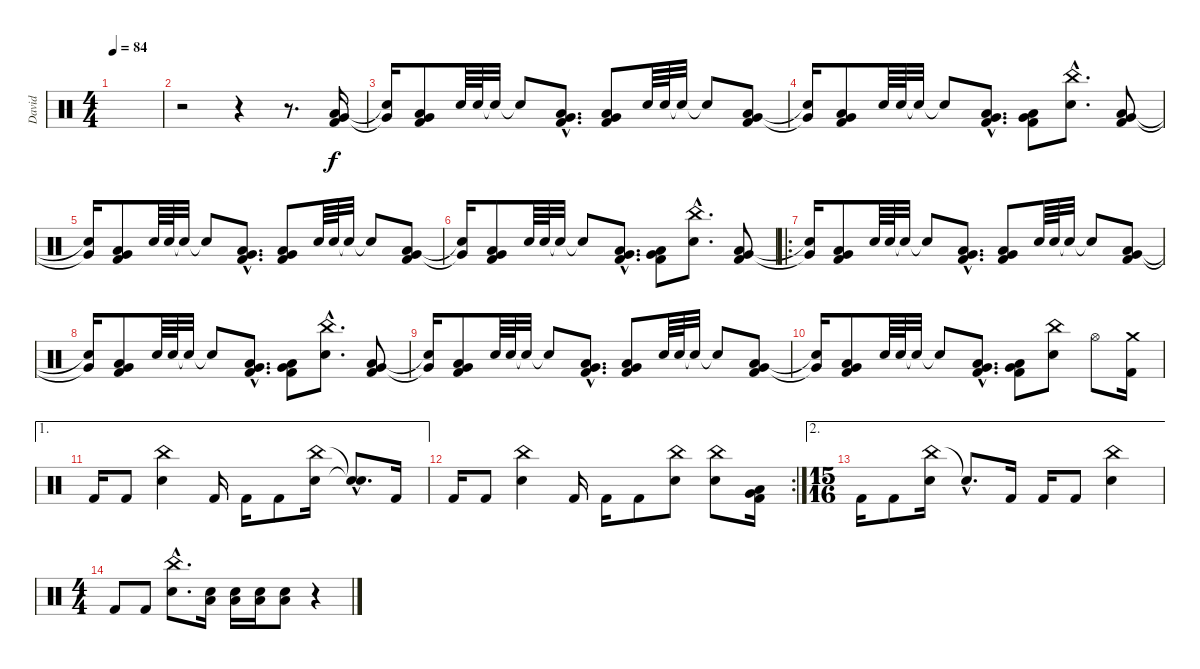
\track ("David" "David") {instrument percussion}
\staff {score}
\articulation defaults
\ts (4 4)
\tempo 84
\clef neutral
\ks c
|
r.2 r.4 r.8{d} ("Low Tom (hit)" "Very Low Tom (hit)" "Kick (hit) 2").16 |
("Snare (hit)"{t} "Very Low Tom (hit)"{t}).16 ("Very Low Tom (hit)" "Low Floor Tom (hit)" "Kick (hit) 2").8 "Snare (hit) 2".64 "Snare (hit) 2".64 "Snare (hit)"{t}.32 "Snare (hit)"{t}.8 ("Low Tom (hit)"{hac} "Very Low Tom (hit)"{hac} "Kick (hit) 2"{hac}).8{d} ("Very Low Tom (hit)" "Low Floor Tom (hit)" "Kick (hit) 2").8 "Snare (hit) 2".64 "Snare (hit) 2".64 "Snare (hit)"{t}.32 "Snare (hit)"{t}.8 ("Low Tom (hit)" "Very Low Tom (hit)" "Kick (hit) 2").8 |
("Snare (hit)"{t} "Very Low Tom (hit)"{t}).16 ("Very Low Tom (hit)" "Low Floor Tom (hit)" "Kick (hit) 2").8 "Snare (hit) 2".64 "Snare (hit) 2".64 "Snare (hit)"{t}.32 "Snare (hit)"{t}.8 ("Low Tom (hit)"{hac} "Very Low Tom (hit)"{hac} "Kick (hit) 2"{hac}).8{d} ("Very Low Tom (hit)" "Low Floor Tom (hit)" "Kick (hit) 2").8 ("China (hit)"{hac} "Snare (hit) 2"{hac}).8{d} ("Low Tom (hit)" "Very Low Tom (hit)" "Kick (hit) 2").8 |
("Snare (hit)"{t} "Very Low Tom (hit)"{t}).16 ("Very Low Tom (hit)" "Low Floor Tom (hit)" "Kick (hit) 2").8 "Snare (hit) 2".64 "Snare (hit) 2".64 "Snare (hit)"{t}.32 "Snare (hit)"{t}.8 ("Low Tom (hit)"{hac} "Very Low Tom (hit)"{hac} "Kick (hit) 2"{hac}).8{d} ("Very Low Tom (hit)" "Low Floor Tom (hit)" "Kick (hit) 2").8 "Snare (hit) 2".64 "Snare (hit) 2".64 "Snare (hit)"{t}.32 "Snare (hit)"{t}.8 ("Low Tom (hit)" "Very Low Tom (hit)" "Kick (hit) 2").8 |
("Snare (hit)"{t} "Very Low Tom (hit)"{t}).16 ("Very Low Tom (hit)" "Low Floor Tom (hit)" "Kick (hit) 2").8 "Snare (hit) 2".64 "Snare (hit) 2".64 "Snare (hit)"{t}.32 "Snare (hit)"{t}.8 ("Low Tom (hit)"{hac} "Very Low Tom (hit)"{hac} "Kick (hit) 2"{hac}).8{d} ("Very Low Tom (hit)" "Low Floor Tom (hit)" "Kick (hit) 2").8 ("China (hit)"{hac} "Snare (hit) 2"{hac}).8{d} ("Low Tom (hit)" "Very Low Tom (hit)" "Kick (hit) 2").8 |
\ro
("Snare (hit)"{t} "Very Low Tom (hit)"{t}).16 ("Very Low Tom (hit)" "Low Floor Tom (hit)" "Kick (hit) 2").8 "Snare (hit) 2".64 "Snare (hit) 2".64 "Snare (hit)"{t}.32 "Snare (hit)"{t}.8 ("Low Tom (hit)"{hac} "Very Low Tom (hit)"{hac} "Kick (hit) 2"{hac}).8{d} ("Very Low Tom (hit)" "Low Floor Tom (hit)" "Kick (hit) 2").8 "Snare (hit) 2".64 "Snare (hit) 2".64 "Snare (hit)"{t}.32 "Snare (hit)"{t}.8 ("Low Tom (hit)" "Very Low Tom (hit)" "Kick (hit) 2").8 |
("Snare (hit)"{t} "Very Low Tom (hit)"{t}).16 ("Very Low Tom (hit)" "Low Floor Tom (hit)" "Kick (hit) 2").8 "Snare (hit) 2".64 "Snare (hit) 2".64 "Snare (hit)"{t}.32 "Snare (hit)"{t}.8 ("Low Tom (hit)"{hac} "Very Low Tom (hit)"{hac} "Kick (hit) 2"{hac}).8{d} ("Very Low Tom (hit)" "Low Floor Tom (hit)" "Kick (hit) 2").8 ("China (hit)"{hac} "Snare (hit) 2"{hac}).8{d} ("Low Tom (hit)" "Very Low Tom (hit)" "Kick (hit) 2").8 |
("Snare (hit)"{t} "Very Low Tom (hit)"{t}).16 ("Very Low Tom (hit)" "Low Floor Tom (hit)" "Kick (hit) 2").8 "Snare (hit) 2".64 "Snare (hit) 2".64 "Snare (hit)"{t}.32 "Snare (hit)"{t}.8 ("Low Tom (hit)"{hac} "Very Low Tom (hit)"{hac} "Kick (hit) 2"{hac}).8{d} ("Very Low Tom (hit)" "Low Floor Tom (hit)" "Kick (hit) 2").8 "Snare (hit) 2".64 "Snare (hit) 2".64 "Snare (hit)"{t}.32 "Snare (hit)"{t}.8 ("Low Tom (hit)" "Very Low Tom (hit)" "Kick (hit) 2").8 |
("Snare (hit)"{t} "Very Low Tom (hit)"{t}).16 ("Very Low Tom (hit)" "Low Floor Tom (hit)" "Kick (hit) 2").8 "Snare (hit) 2".64 "Snare (hit) 2".64 "Snare (hit)"{t}.32 "Snare (hit)"{t}.8 ("Low Tom (hit)"{hac} "Very Low Tom (hit)"{hac} "Kick (hit) 2"{hac}).8{d} ("Very Low Tom (hit)" "Low Floor Tom (hit)" "Kick (hit) 2").8 ("China (hit)" "Snare (hit) 2").8 "Hi-Hat (open)".8 ("Crash medium (hit)" "Kick (hit) 2").16 |
\ae 1 "Kick (hit) 2".16 "Kick (hit) 2".8
("China (hit)" "Snare (hit) 2").4 "Kick (hit) 2".16 "Kick (hit) 2".16 "Kick (hit) 2".8 ("China (hit)" "Snare (hit) 2").16 ("Snare (hit)"{hac t} "Snare (hit)"{hac t}).8{d} "Kick (hit) 2".16 |
\rc 2 "Kick (hit) 2".16 "Kick (hit) 2".8
("China (hit)" "Snare (hit) 2").4 "Kick (hit) 2".16 "Kick (hit) 2".16 "Kick (hit) 2".8 ("China (hit)" "Snare (hit) 2").8 ("China (hit)" "Snare (hit) 2").8 ("Low Tom (hit)" "Very Low Tom (hit)" "Kick (hit) 2").16 |
\ae 2
\ts (15 16)
"Kick (hit) 2".16 "Kick (hit) 2".8 ("China (hit)" "Snare (hit) 2").16 "Snare (hit)"{hac t}.8{d} "Kick (hit) 2".16 "Kick (hit) 2".16 "Kick (hit) 2".8 ("China (hit)" "Snare (hit) 2").4 |
\ts (4 4)
"Kick (hit) 2".8 "Kick (hit) 2".8 ("China (hit)"{hac} "Snare (hit) 2"{hac}).8{d} ("Snare (hit) 2" "Low Floor Tom (hit)").16 ("Snare (hit) 2" "Low Floor Tom (hit)").16 ("Snare (hit) 2" "Low Floor Tom (hit)").16 ("Snare (hit) 2" "Low Floor Tom (hit)").8 r.4
